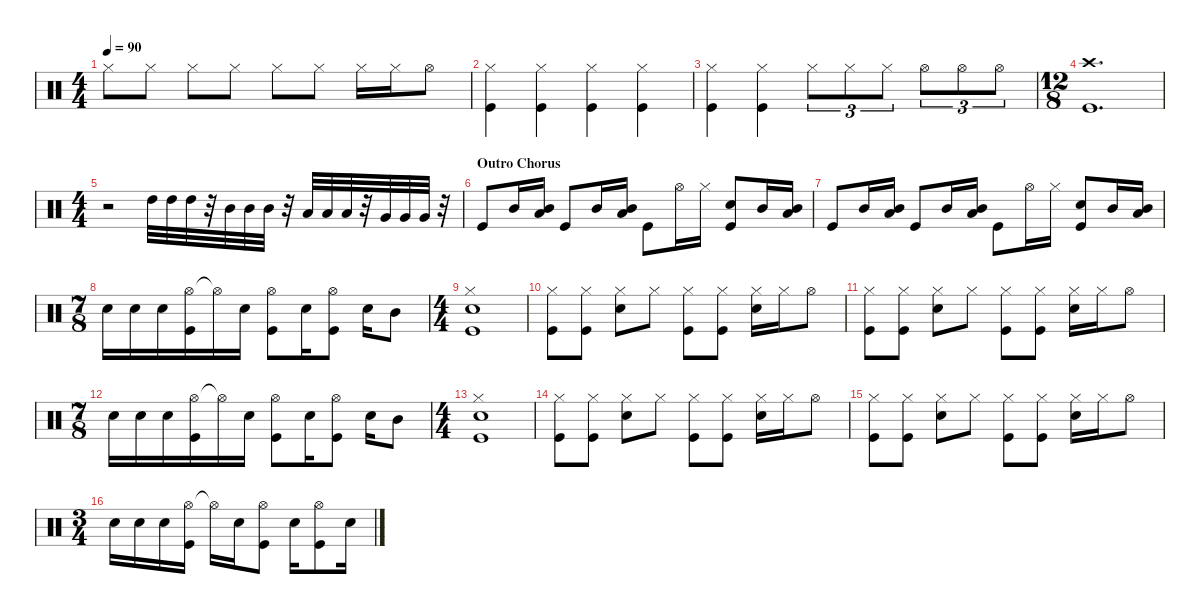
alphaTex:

\defaultSystemsLayout 4
\hideDynamics
\bracketExtendMode nobrackets
\singleTrackTrackNamePolicy hidden
\multiTrackTrackNamePolicy hidden
\otherSystemsTrackNameOrientation horizontal
\track ("Drumkit" "drm.") {instrument percussion}
\staff {score}
\articulation defaults
\ts (4 4)
\tempo 90
\clef neutral
\ks c "Hi-Hat (closed)".8{dy f beam Down} "Hi-Hat (closed)".8{beam Down} "Hi-Hat (closed)".8{beam Down} "Hi-Hat (closed)".8{beam Down} "Hi-Hat (closed)".8{beam Down} "Hi-Hat (closed)".8{beam Down} "Hi-Hat (closed)".16{beam Down} "Hi-Hat (closed)".16{beam Down} "Hi-Hat (open)".8{beam Down}
|
("Hi-Hat (closed)" "Kick (hit)").4{beam Down} ("Hi-Hat (closed)" "Kick (hit)").4{beam Down} ("Hi-Hat (closed)" "Kick (hit)").4{beam Down} ("Hi-Hat (closed)" "Kick (hit)").4{beam Down} |
("Hi-Hat (closed)" "Kick (hit)").4{beam Down} ("Hi-Hat (closed)" "Kick (hit)").4{beam Down} "Hi-Hat (closed)".8{tu (3 2) beam Down} "Hi-Hat (closed)".8{tu (3 2) beam Down} "Hi-Hat (closed)".8{tu (3 2) beam Down} "Hi-Hat (open)".8{tu (3 2) beam Down} "Hi-Hat (open)".8{tu (3 2) beam Down} "Hi-Hat (open)".8{tu (3 2) beam Down} |
\ts (12 8)
\beaming (8 3 3 3 3)
("Crash high (hit)" "Kick (hit)").1{d beam Down} |
\ts (4 4)
\beaming (8 2 2 2 2)
r.2{beam Down} "High Tom (hit)".32{dy mf beam Down} "High Tom (hit)".32{beam Down} "High Tom (hit)".32{beam Down} r.32{beam Down} "Mid Tom (hit)".32{beam Down} "Mid Tom (hit)".32{beam Down} "Mid Tom (hit)".32{beam Down} r.32{beam Down} "Low Tom (hit)".32{dy ff beam Up} "Low Tom (hit)".32{beam Up} "Low Tom (hit)".32{beam Up} r.32{beam Up} "Very Low Tom (hit)".32{beam Up} "Very Low Tom (hit)".32{beam Up} "Very Low Tom (hit)".32{beam Up} r.32{beam Up} |
\section ("" "Outro Chorus")
"Kick (hit)".8{dy mf beam Up} "Mid Tom (hit)".16{beam Up} ("Mid Tom (hit)" "Low Tom (hit)").16{beam Up} "Kick (hit)".8{beam Up} "Mid Tom (hit)".16{beam Up} ("Mid Tom (hit)" "Low Tom (hit)").16{beam Up} "Kick (hit)".8{beam Down} "Hi-Hat (open)".16{dy f beam Down} "Hi-Hat (closed)".16{beam Down} ("Kick (hit)" "Snare (hit) 2").8{beam Up} "Mid Tom (hit)".16{beam Up} ("Mid Tom (hit)" "Low Tom (hit)").16{beam Up} |
"Kick (hit)".8{dy mf beam Up} "Mid Tom (hit)".16{beam Up} ("Mid Tom (hit)" "Low Tom (hit)").16{beam Up} "Kick (hit)".8{beam Up} "Mid Tom (hit)".16{beam Up} ("Mid Tom (hit)" "Low Tom (hit)").16{beam Up} "Kick (hit)".8{beam Down} "Hi-Hat (open)".16{dy f beam Down} "Hi-Hat (closed)".16{beam Down} ("Kick (hit)" "Snare (hit) 2").8{beam Up} "Mid Tom (hit)".16{beam Up} ("Mid Tom (hit)" "Low Tom (hit)").16{beam Up} |
\ts (7 8)
\beaming (8 3 2 2)
"Snare (hit) 2".16{dy mf beam Down} "Snare (hit) 2".16{beam Down} "Snare (hit) 2".16{beam Down} ("Hi-Hat (open)" "Kick (hit)").16{beam Down} "Hi-Hat (open)"{t}.16{beam Down} "Snare (hit) 2".16{beam Down} ("Hi-Hat (open)" "Kick (hit)").8{beam Down} "Snare (hit) 2".16{beam Down} ("Hi-Hat (open)" "Kick (hit)").8{beam Down} "Snare (hit) 2".16{beam Down} "Mid Tom (hit)".8{beam Down} |
\ts (4 4)
\beaming (8 2 2 2 2)
("Kick (hit)" "Hi-Hat (closed)" "Snare (hit) 2").1{dy ff beam Down} |
("Hi-Hat (closed)" "Kick (hit)").8{dy f beam Down} ("Hi-Hat (closed)" "Kick (hit)").8{beam Down} ("Hi-Hat (closed)" "Snare (hit) 2").8{beam Down} "Hi-Hat (closed)".8{beam Down} ("Hi-Hat (closed)" "Kick (hit)").8{beam Down} ("Hi-Hat (closed)" "Kick (hit)").8{beam Down} ("Hi-Hat (closed)" "Snare (hit) 2").16{beam Down} "Hi-Hat (closed)".16{beam Down} "Hi-Hat (open)".8{beam Down} |
("Hi-Hat (closed)" "Kick (hit)").8{beam Down} ("Hi-Hat (closed)" "Kick (hit)").8{beam Down} ("Hi-Hat (closed)" "Snare (hit) 2").8{beam Down} "Hi-Hat (closed)".8{beam Down} ("Hi-Hat (closed)" "Kick (hit)").8{beam Down} ("Hi-Hat (closed)" "Kick (hit)").8{beam Down} ("Hi-Hat (closed)" "Snare (hit) 2").16{beam Down} "Hi-Hat (closed)".16{beam Down} "Hi-Hat (open)".8{beam Down} |
\ts (7 8)
\beaming (8 3 2 2)
"Snare (hit) 2".16{dy mf beam Down} "Snare (hit) 2".16{beam Down} "Snare (hit) 2".16{beam Down} ("Hi-Hat (open)" "Kick (hit)").16{beam Down} "Hi-Hat (open)"{t}.16{beam Down} "Snare (hit) 2".16{beam Down} ("Hi-Hat (open)" "Kick (hit)").8{beam Down} "Snare (hit) 2".16{beam Down} ("Hi-Hat (open)" "Kick (hit)").8{beam Down} "Snare (hit) 2".16{beam Down} "Mid Tom (hit)".8{beam Down} |
\ts (4 4)
\beaming (8 2 2 2 2)
("Kick (hit)" "Hi-Hat (closed)" "Snare (hit) 2").1{dy ff beam Down} |
("Hi-Hat (closed)" "Kick (hit)").8{dy f beam Down} ("Hi-Hat (closed)" "Kick (hit)").8{beam Down} ("Hi-Hat (closed)" "Snare (hit) 2").8{beam Down} "Hi-Hat (closed)".8{beam Down} ("Hi-Hat (closed)" "Kick (hit)").8{beam Down} ("Hi-Hat (closed)" "Kick (hit)").8{beam Down} ("Hi-Hat (closed)" "Snare (hit) 2").16{beam Down} "Hi-Hat (closed)".16{beam Down} "Hi-Hat (open)".8{beam Down} |
("Hi-Hat (closed)" "Kick (hit)").8{beam Down} ("Hi-Hat (closed)" "Kick (hit)").8{beam Down} ("Hi-Hat (closed)" "Snare (hit) 2").8{beam Down} "Hi-Hat (closed)".8{beam Down} ("Hi-Hat (closed)" "Kick (hit)").8{beam Down} ("Hi-Hat (closed)" "Kick (hit)").8{beam Down} ("Hi-Hat (closed)" "Snare (hit) 2").16{beam Down} "Hi-Hat (closed)".16{beam Down} "Hi-Hat (open)".8{beam Down} |
\ts (3 4)
\beaming (8 2 2 2)
"Snare (hit) 2".16{dy mf beam Down} "Snare (hit) 2".16{beam Down} "Snare (hit) 2".16{beam Down} ("Hi-Hat (open)" "Kick (hit)").16{beam Down} "Hi-Hat (open)"{t}.16{beam Down} "Snare (hit) 2".16{beam Down} ("Hi-Hat (open)" "Kick (hit)").8{beam Down} "Snare (hit) 2".16{beam Down} ("Hi-Hat (open)" "Kick (hit)").8{beam Down} "Snare (hit) 2".16{beam Down}
